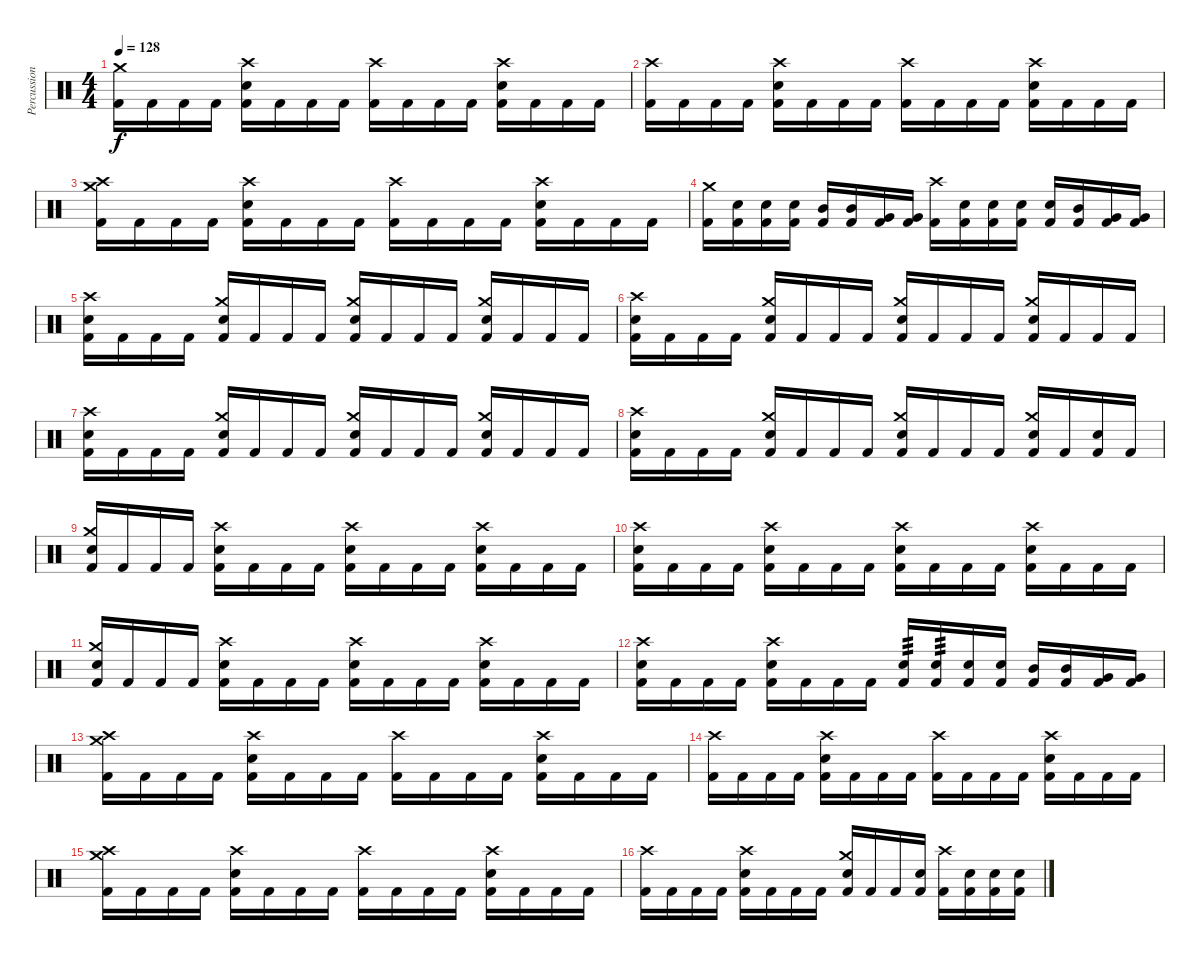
\track ("Percussion" "Percussion") {instrument percussion}
\staff {score}
\articulation defaults
\ts (4 4)
\tempo 128
\clef neutral
\ks c
("Kick (hit) 2" "Crash medium (hit)").16{dy f} "Kick (hit) 2".16 "Kick (hit) 2".16 "Kick (hit) 2".16 ("Kick (hit) 2" "Electric Snare (hit)" "Crash high (hit)").16 "Kick (hit) 2".16 "Kick (hit) 2".16 "Kick (hit) 2".16 ("Kick (hit) 2" "Crash high (hit)").16 "Kick (hit) 2".16 "Kick (hit) 2".16 "Kick (hit) 2".16 ("Kick (hit) 2" "Electric Snare (hit)" "Crash high (hit)").16 "Kick (hit) 2".16 "Kick (hit) 2".16 "Kick (hit) 2".16 |
("Kick (hit) 2" "Crash high (hit)").16 "Kick (hit) 2".16 "Kick (hit) 2".16 "Kick (hit) 2".16 ("Kick (hit) 2" "Electric Snare (hit)" "Crash high (hit)").16 "Kick (hit) 2".16 "Kick (hit) 2".16 "Kick (hit) 2".16 ("Kick (hit) 2" "Crash high (hit)").16 "Kick (hit) 2".16 "Kick (hit) 2".16 "Kick (hit) 2".16 ("Kick (hit) 2" "Electric Snare (hit)" "Crash high (hit)").16 "Kick (hit) 2".16 "Kick (hit) 2".16 "Kick (hit) 2".16 |
("Kick (hit) 2" "Crash medium (hit)" "Crash high (hit)").16 "Kick (hit) 2".16 "Kick (hit) 2".16 "Kick (hit) 2".16 ("Kick (hit) 2" "Electric Snare (hit)" "Crash high (hit)").16 "Kick (hit) 2".16 "Kick (hit) 2".16 "Kick (hit) 2".16 ("Kick (hit) 2" "Crash high (hit)").16 "Kick (hit) 2".16 "Kick (hit) 2".16 "Kick (hit) 2".16 ("Kick (hit) 2" "Electric Snare (hit)" "Crash high (hit)").16 "Kick (hit) 2".16 "Kick (hit) 2".16 "Kick (hit) 2".16 |
("Kick (hit) 2" "Crash medium (hit)").16 ("Kick (hit) 2" "Electric Snare (hit)").16 ("Kick (hit) 2" "Electric Snare (hit)").16 ("Kick (hit) 2" "Electric Snare (hit)").16 ("Kick (hit) 2" "Mid Tom (hit)").16 ("Kick (hit) 2" "Mid Tom (hit)").16 ("Kick (hit) 2" "Very Low Tom (hit)").16 ("Kick (hit) 2" "Very Low Tom (hit)").16 ("Kick (hit) 2" "Crash high (hit)").16 ("Kick (hit) 2" "Electric Snare (hit)").16 ("Kick (hit) 2" "Electric Snare (hit)").16 ("Kick (hit) 2" "Electric Snare (hit)").16 ("Kick (hit) 2" "Electric Snare (hit)").16 ("Kick (hit) 2" "Mid Tom (hit)").16 ("Kick (hit) 2" "Very Low Tom (hit)").16 ("Kick (hit) 2" "Very Low Tom (hit)").16 |
("Kick (hit) 2" "Electric Snare (hit)" "Crash high (hit)").16 "Kick (hit) 2".16 "Kick (hit) 2".16 "Kick (hit) 2".16 ("Kick (hit) 2" "Electric Snare (hit)" "Crash medium (hit)").16 "Kick (hit) 2".16 "Kick (hit) 2".16 "Kick (hit) 2".16 ("Kick (hit) 2" "Electric Snare (hit)" "Crash medium (hit)").16 "Kick (hit) 2".16 "Kick (hit) 2".16 "Kick (hit) 2".16 ("Kick (hit) 2" "Electric Snare (hit)" "Crash medium (hit)").16 "Kick (hit) 2".16 "Kick (hit) 2".16 "Kick (hit) 2".16 |
("Kick (hit) 2" "Electric Snare (hit)" "Crash high (hit)").16 "Kick (hit) 2".16 "Kick (hit) 2".16 "Kick (hit) 2".16 ("Kick (hit) 2" "Electric Snare (hit)" "Crash medium (hit)").16 "Kick (hit) 2".16 "Kick (hit) 2".16 "Kick (hit) 2".16 ("Kick (hit) 2" "Electric Snare (hit)" "Crash medium (hit)").16 "Kick (hit) 2".16 "Kick (hit) 2".16 "Kick (hit) 2".16 ("Kick (hit) 2" "Electric Snare (hit)" "Crash medium (hit)").16 "Kick (hit) 2".16 "Kick (hit) 2".16 "Kick (hit) 2".16 |
("Kick (hit) 2" "Electric Snare (hit)" "Crash high (hit)").16 "Kick (hit) 2".16 "Kick (hit) 2".16 "Kick (hit) 2".16 ("Kick (hit) 2" "Electric Snare (hit)" "Crash medium (hit)").16 "Kick (hit) 2".16 "Kick (hit) 2".16 "Kick (hit) 2".16 ("Kick (hit) 2" "Electric Snare (hit)" "Crash medium (hit)").16 "Kick (hit) 2".16 "Kick (hit) 2".16 "Kick (hit) 2".16 ("Kick (hit) 2" "Electric Snare (hit)" "Crash medium (hit)").16 "Kick (hit) 2".16 "Kick (hit) 2".16 "Kick (hit) 2".16 |
("Kick (hit) 2" "Electric Snare (hit)" "Crash high (hit)").16 "Kick (hit) 2".16 "Kick (hit) 2".16 "Kick (hit) 2".16 ("Kick (hit) 2" "Electric Snare (hit)" "Crash medium (hit)").16 "Kick (hit) 2".16 "Kick (hit) 2".16 "Kick (hit) 2".16 ("Kick (hit) 2" "Electric Snare (hit)" "Crash medium (hit)").16 "Kick (hit) 2".16 "Kick (hit) 2".16 "Kick (hit) 2".16 ("Kick (hit) 2" "Electric Snare (hit)" "Crash medium (hit)").16 "Kick (hit) 2".16 ("Kick (hit) 2" "Electric Snare (hit)").16 "Kick (hit) 2".16 |
("Kick (hit) 2" "Electric Snare (hit)" "Crash medium (hit)").16 "Kick (hit) 2".16 "Kick (hit) 2".16 "Kick (hit) 2".16 ("Kick (hit) 2" "Electric Snare (hit)" "Crash high (hit)").16 "Kick (hit) 2".16 "Kick (hit) 2".16 "Kick (hit) 2".16 ("Kick (hit) 2" "Electric Snare (hit)" "Crash high (hit)").16 "Kick (hit) 2".16 "Kick (hit) 2".16 "Kick (hit) 2".16 ("Kick (hit) 2" "Electric Snare (hit)" "Crash high (hit)").16 "Kick (hit) 2".16 "Kick (hit) 2".16 "Kick (hit) 2".16 |
("Kick (hit) 2" "Electric Snare (hit)" "Crash high (hit)").16 "Kick (hit) 2".16 "Kick (hit) 2".16 "Kick (hit) 2".16 ("Kick (hit) 2" "Electric Snare (hit)" "Crash high (hit)").16 "Kick (hit) 2".16 "Kick (hit) 2".16 "Kick (hit) 2".16 ("Kick (hit) 2" "Electric Snare (hit)" "Crash high (hit)").16 "Kick (hit) 2".16 "Kick (hit) 2".16 "Kick (hit) 2".16 ("Kick (hit) 2" "Electric Snare (hit)" "Crash high (hit)").16 "Kick (hit) 2".16 "Kick (hit) 2".16 "Kick (hit) 2".16 |
("Kick (hit) 2" "Electric Snare (hit)" "Crash medium (hit)").16 "Kick (hit) 2".16 "Kick (hit) 2".16 "Kick (hit) 2".16 ("Kick (hit) 2" "Electric Snare (hit)" "Crash high (hit)").16 "Kick (hit) 2".16 "Kick (hit) 2".16 "Kick (hit) 2".16 ("Kick (hit) 2" "Electric Snare (hit)" "Crash high (hit)").16 "Kick (hit) 2".16 "Kick (hit) 2".16 "Kick (hit) 2".16 ("Kick (hit) 2" "Electric Snare (hit)" "Crash high (hit)").16 "Kick (hit) 2".16 "Kick (hit) 2".16 "Kick (hit) 2".16 |
("Kick (hit) 2" "Electric Snare (hit)" "Crash high (hit)").16 "Kick (hit) 2".16 "Kick (hit) 2".16 "Kick (hit) 2".16 ("Kick (hit) 2" "Electric Snare (hit)" "Crash high (hit)").16 "Kick (hit) 2".16 "Kick (hit) 2".16 "Kick (hit) 2".16 ("Kick (hit) 2" "Electric Snare (hit)").16{tp 3} ("Kick (hit) 2" "Electric Snare (hit)").16{tp 3} ("Kick (hit) 2" "Electric Snare (hit)").16 ("Kick (hit) 2" "Electric Snare (hit)").16 ("Kick (hit) 2" "Mid Tom (hit)").16 ("Kick (hit) 2" "Mid Tom (hit)").16 ("Kick (hit) 2" "Very Low Tom (hit)").16 ("Kick (hit) 2" "Very Low Tom (hit)").16 |
("Kick (hit) 2" "Crash medium (hit)" "Crash high (hit)").16 "Kick (hit) 2".16 "Kick (hit) 2".16 "Kick (hit) 2".16 ("Kick (hit) 2" "Electric Snare (hit)" "Crash high (hit)").16 "Kick (hit) 2".16 "Kick (hit) 2".16 "Kick (hit) 2".16 ("Kick (hit) 2" "Crash high (hit)").16 "Kick (hit) 2".16 "Kick (hit) 2".16 "Kick (hit) 2".16 ("Kick (hit) 2" "Electric Snare (hit)" "Crash high (hit)").16 "Kick (hit) 2".16 "Kick (hit) 2".16 "Kick (hit) 2".16 |
("Kick (hit) 2" "Crash high (hit)").16 "Kick (hit) 2".16 "Kick (hit) 2".16 "Kick (hit) 2".16 ("Kick (hit) 2" "Electric Snare (hit)" "Crash high (hit)").16 "Kick (hit) 2".16 "Kick (hit) 2".16 "Kick (hit) 2".16 ("Kick (hit) 2" "Crash high (hit)").16 "Kick (hit) 2".16 "Kick (hit) 2".16 "Kick (hit) 2".16 ("Kick (hit) 2" "Electric Snare (hit)" "Crash high (hit)").16 "Kick (hit) 2".16 "Kick (hit) 2".16 "Kick (hit) 2".16 |
("Kick (hit) 2" "Crash medium (hit)" "Crash high (hit)").16 "Kick (hit) 2".16 "Kick (hit) 2".16 "Kick (hit) 2".16 ("Kick (hit) 2" "Electric Snare (hit)" "Crash high (hit)").16 "Kick (hit) 2".16 "Kick (hit) 2".16 "Kick (hit) 2".16 ("Kick (hit) 2" "Crash high (hit)").16 "Kick (hit) 2".16 "Kick (hit) 2".16 "Kick (hit) 2".16 ("Kick (hit) 2" "Electric Snare (hit)" "Crash high (hit)").16 "Kick (hit) 2".16 "Kick (hit) 2".16 "Kick (hit) 2".16 |
("Kick (hit) 2" "Crash high (hit)").16 "Kick (hit) 2".16 "Kick (hit) 2".16 "Kick (hit) 2".16 ("Kick (hit) 2" "Electric Snare (hit)" "Crash high (hit)").16 "Kick (hit) 2".16 "Kick (hit) 2".16 "Kick (hit) 2".16 ("Kick (hit) 2" "Electric Snare (hit)" "Crash medium (hit)").16 "Kick (hit) 2".16 "Kick (hit) 2".16 ("Kick (hit) 2" "Electric Snare (hit)").16 ("Kick (hit) 2" "Crash high (hit)").16 ("Kick (hit) 2" "Electric Snare (hit)").16 ("Kick (hit) 2" "Electric Snare (hit)").16 ("Kick (hit) 2" "Electric Snare (hit)").16
